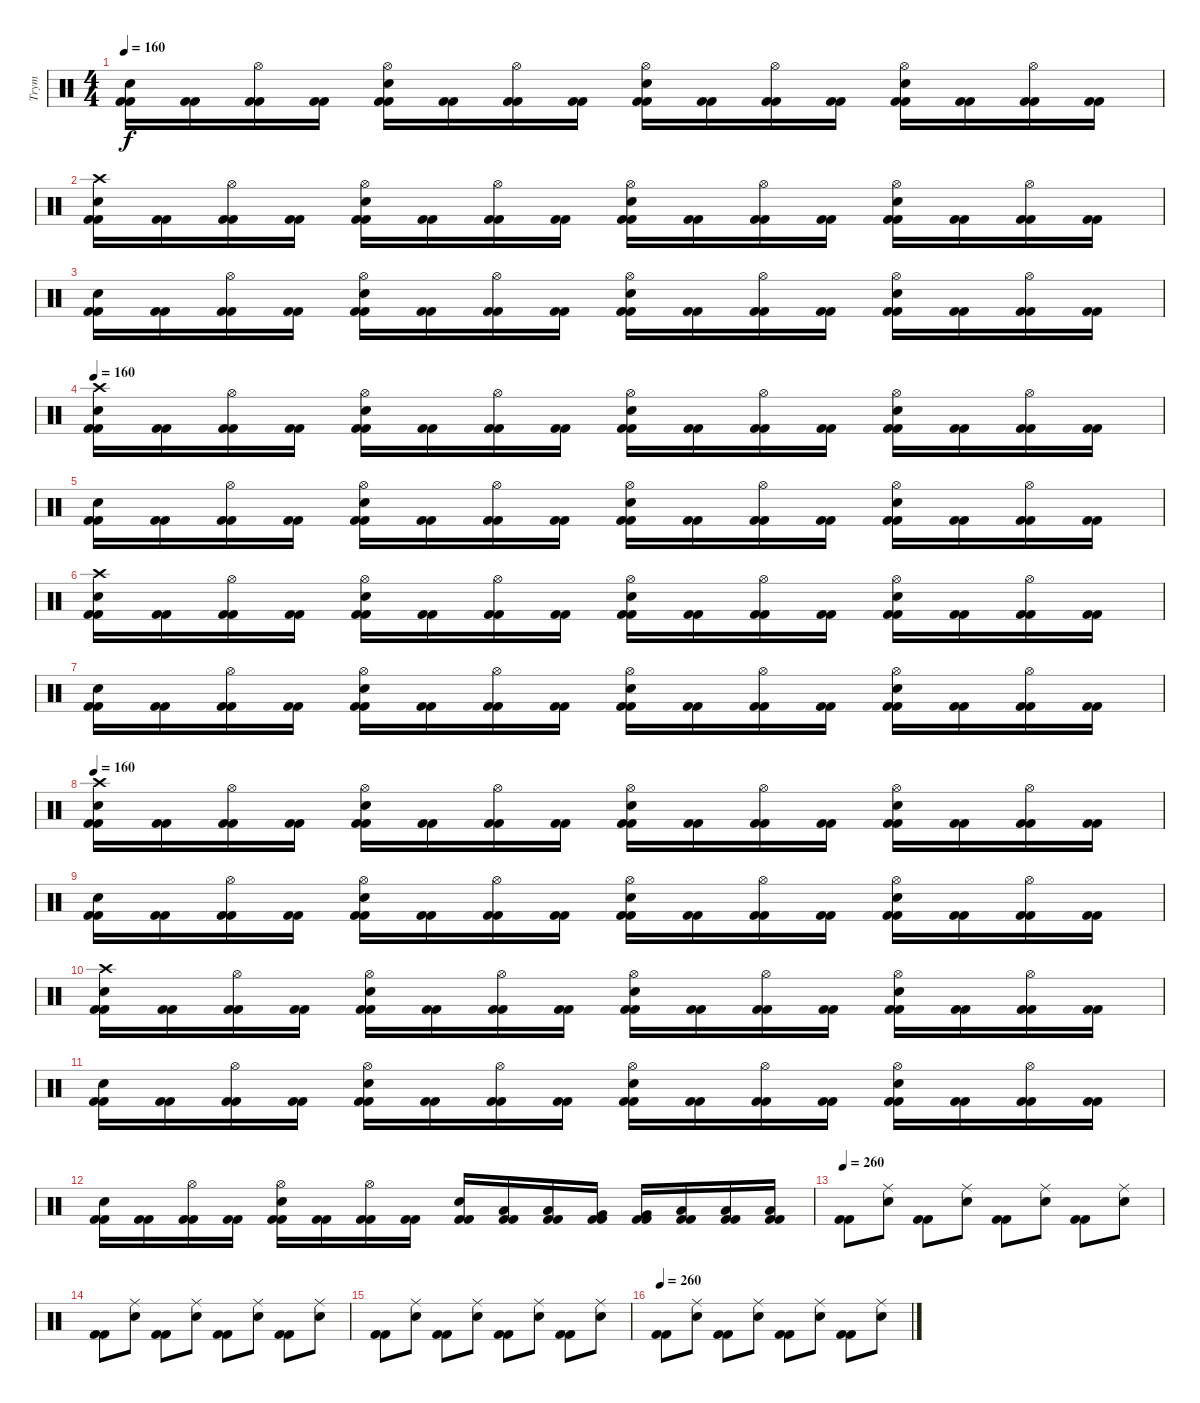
\track ("Trym" "Trym") {instrument percussion}
\staff {score}
\articulation defaults
\ts (4 4)
\tempo 160
\clef neutral
\ks c
("Kick (hit) 2" "Snare (hit) 2" "Kick (hit) 2").16{dy f} ("Kick (hit) 2" "Kick (hit) 2").16 ("Kick (hit) 2" "Hi-Hat (open)" "Kick (hit) 2").16 ("Kick (hit) 2" "Kick (hit) 2").16 ("Kick (hit) 2" "Hi-Hat (open)" "Snare (hit) 2" "Kick (hit) 2").16 ("Kick (hit) 2" "Kick (hit) 2").16 ("Kick (hit) 2" "Hi-Hat (open)" "Kick (hit) 2").16 ("Kick (hit) 2" "Kick (hit) 2").16 ("Kick (hit) 2" "Hi-Hat (open)" "Snare (hit) 2" "Kick (hit) 2").16 ("Kick (hit) 2" "Kick (hit) 2").16 ("Kick (hit) 2" "Hi-Hat (open)" "Kick (hit) 2").16 ("Kick (hit) 2" "Kick (hit) 2").16 ("Kick (hit) 2" "Hi-Hat (open)" "Snare (hit) 2" "Kick (hit) 2").16 ("Kick (hit) 2" "Kick (hit) 2").16 ("Kick (hit) 2" "Hi-Hat (open)" "Kick (hit) 2").16 ("Kick (hit) 2" "Kick (hit) 2").16 |
("Kick (hit) 2" "Crash high (hit)" "Snare (hit) 2" "Kick (hit) 2").16 ("Kick (hit) 2" "Kick (hit) 2").16 ("Kick (hit) 2" "Hi-Hat (open)" "Kick (hit) 2").16 ("Kick (hit) 2" "Kick (hit) 2").16 ("Kick (hit) 2" "Hi-Hat (open)" "Snare (hit) 2" "Kick (hit) 2").16 ("Kick (hit) 2" "Kick (hit) 2").16 ("Kick (hit) 2" "Hi-Hat (open)" "Kick (hit) 2").16 ("Kick (hit) 2" "Kick (hit) 2").16 ("Kick (hit) 2" "Hi-Hat (open)" "Snare (hit) 2" "Kick (hit) 2").16 ("Kick (hit) 2" "Kick (hit) 2").16 ("Kick (hit) 2" "Hi-Hat (open)" "Kick (hit) 2").16 ("Kick (hit) 2" "Kick (hit) 2").16 ("Kick (hit) 2" "Hi-Hat (open)" "Snare (hit) 2" "Kick (hit) 2").16 ("Kick (hit) 2" "Kick (hit) 2").16 ("Kick (hit) 2" "Hi-Hat (open)" "Kick (hit) 2").16 ("Kick (hit) 2" "Kick (hit) 2").16 |
("Kick (hit) 2" "Snare (hit) 2" "Kick (hit) 2").16 ("Kick (hit) 2" "Kick (hit) 2").16 ("Kick (hit) 2" "Hi-Hat (open)" "Kick (hit) 2").16 ("Kick (hit) 2" "Kick (hit) 2").16 ("Kick (hit) 2" "Hi-Hat (open)" "Snare (hit) 2" "Kick (hit) 2").16 ("Kick (hit) 2" "Kick (hit) 2").16 ("Kick (hit) 2" "Hi-Hat (open)" "Kick (hit) 2").16 ("Kick (hit) 2" "Kick (hit) 2").16 ("Kick (hit) 2" "Hi-Hat (open)" "Snare (hit) 2" "Kick (hit) 2").16 ("Kick (hit) 2" "Kick (hit) 2").16 ("Kick (hit) 2" "Hi-Hat (open)" "Kick (hit) 2").16 ("Kick (hit) 2" "Kick (hit) 2").16 ("Kick (hit) 2" "Hi-Hat (open)" "Snare (hit) 2" "Kick (hit) 2").16 ("Kick (hit) 2" "Kick (hit) 2").16 ("Kick (hit) 2" "Hi-Hat (open)" "Kick (hit) 2").16 ("Kick (hit) 2" "Kick (hit) 2").16 |
\tempo 160
("Kick (hit) 2" "Crash high (hit)" "Snare (hit) 2" "Kick (hit) 2").16 ("Kick (hit) 2" "Kick (hit) 2").16 ("Kick (hit) 2" "Hi-Hat (open)" "Kick (hit) 2").16 ("Kick (hit) 2" "Kick (hit) 2").16 ("Kick (hit) 2" "Hi-Hat (open)" "Snare (hit) 2" "Kick (hit) 2").16 ("Kick (hit) 2" "Kick (hit) 2").16 ("Kick (hit) 2" "Hi-Hat (open)" "Kick (hit) 2").16 ("Kick (hit) 2" "Kick (hit) 2").16 ("Kick (hit) 2" "Hi-Hat (open)" "Snare (hit) 2" "Kick (hit) 2").16 ("Kick (hit) 2" "Kick (hit) 2").16 ("Kick (hit) 2" "Hi-Hat (open)" "Kick (hit) 2").16 ("Kick (hit) 2" "Kick (hit) 2").16 ("Kick (hit) 2" "Hi-Hat (open)" "Snare (hit) 2" "Kick (hit) 2").16 ("Kick (hit) 2" "Kick (hit) 2").16 ("Kick (hit) 2" "Hi-Hat (open)" "Kick (hit) 2").16 ("Kick (hit) 2" "Kick (hit) 2").16 |
("Kick (hit) 2" "Snare (hit) 2" "Kick (hit) 2").16 ("Kick (hit) 2" "Kick (hit) 2").16 ("Kick (hit) 2" "Hi-Hat (open)" "Kick (hit) 2").16 ("Kick (hit) 2" "Kick (hit) 2").16 ("Kick (hit) 2" "Hi-Hat (open)" "Snare (hit) 2" "Kick (hit) 2").16 ("Kick (hit) 2" "Kick (hit) 2").16 ("Kick (hit) 2" "Hi-Hat (open)" "Kick (hit) 2").16 ("Kick (hit) 2" "Kick (hit) 2").16 ("Kick (hit) 2" "Hi-Hat (open)" "Snare (hit) 2" "Kick (hit) 2").16 ("Kick (hit) 2" "Kick (hit) 2").16 ("Kick (hit) 2" "Hi-Hat (open)" "Kick (hit) 2").16 ("Kick (hit) 2" "Kick (hit) 2").16 ("Kick (hit) 2" "Hi-Hat (open)" "Snare (hit) 2" "Kick (hit) 2").16 ("Kick (hit) 2" "Kick (hit) 2").16 ("Kick (hit) 2" "Hi-Hat (open)" "Kick (hit) 2").16 ("Kick (hit) 2" "Kick (hit) 2").16 |
("Kick (hit) 2" "Crash high (hit)" "Snare (hit) 2" "Kick (hit) 2").16 ("Kick (hit) 2" "Kick (hit) 2").16 ("Kick (hit) 2" "Hi-Hat (open)" "Kick (hit) 2").16 ("Kick (hit) 2" "Kick (hit) 2").16 ("Kick (hit) 2" "Hi-Hat (open)" "Snare (hit) 2" "Kick (hit) 2").16 ("Kick (hit) 2" "Kick (hit) 2").16 ("Kick (hit) 2" "Hi-Hat (open)" "Kick (hit) 2").16 ("Kick (hit) 2" "Kick (hit) 2").16 ("Kick (hit) 2" "Hi-Hat (open)" "Snare (hit) 2" "Kick (hit) 2").16 ("Kick (hit) 2" "Kick (hit) 2").16 ("Kick (hit) 2" "Hi-Hat (open)" "Kick (hit) 2").16 ("Kick (hit) 2" "Kick (hit) 2").16 ("Kick (hit) 2" "Hi-Hat (open)" "Snare (hit) 2" "Kick (hit) 2").16 ("Kick (hit) 2" "Kick (hit) 2").16 ("Kick (hit) 2" "Hi-Hat (open)" "Kick (hit) 2").16 ("Kick (hit) 2" "Kick (hit) 2").16 |
("Kick (hit) 2" "Snare (hit) 2" "Kick (hit) 2").16 ("Kick (hit) 2" "Kick (hit) 2").16 ("Kick (hit) 2" "Hi-Hat (open)" "Kick (hit) 2").16 ("Kick (hit) 2" "Kick (hit) 2").16 ("Kick (hit) 2" "Hi-Hat (open)" "Snare (hit) 2" "Kick (hit) 2").16 ("Kick (hit) 2" "Kick (hit) 2").16 ("Kick (hit) 2" "Hi-Hat (open)" "Kick (hit) 2").16 ("Kick (hit) 2" "Kick (hit) 2").16 ("Kick (hit) 2" "Hi-Hat (open)" "Snare (hit) 2" "Kick (hit) 2").16 ("Kick (hit) 2" "Kick (hit) 2").16 ("Kick (hit) 2" "Hi-Hat (open)" "Kick (hit) 2").16 ("Kick (hit) 2" "Kick (hit) 2").16 ("Kick (hit) 2" "Hi-Hat (open)" "Snare (hit) 2" "Kick (hit) 2").16 ("Kick (hit) 2" "Kick (hit) 2").16 ("Kick (hit) 2" "Hi-Hat (open)" "Kick (hit) 2").16 ("Kick (hit) 2" "Kick (hit) 2").16 |
\tempo 160
("Kick (hit) 2" "Crash high (hit)" "Snare (hit) 2" "Kick (hit) 2").16 ("Kick (hit) 2" "Kick (hit) 2").16 ("Kick (hit) 2" "Hi-Hat (open)" "Kick (hit) 2").16 ("Kick (hit) 2" "Kick (hit) 2").16 ("Kick (hit) 2" "Hi-Hat (open)" "Snare (hit) 2" "Kick (hit) 2").16 ("Kick (hit) 2" "Kick (hit) 2").16 ("Kick (hit) 2" "Hi-Hat (open)" "Kick (hit) 2").16 ("Kick (hit) 2" "Kick (hit) 2").16 ("Kick (hit) 2" "Hi-Hat (open)" "Snare (hit) 2" "Kick (hit) 2").16 ("Kick (hit) 2" "Kick (hit) 2").16 ("Kick (hit) 2" "Hi-Hat (open)" "Kick (hit) 2").16 ("Kick (hit) 2" "Kick (hit) 2").16 ("Kick (hit) 2" "Hi-Hat (open)" "Snare (hit) 2" "Kick (hit) 2").16 ("Kick (hit) 2" "Kick (hit) 2").16 ("Kick (hit) 2" "Hi-Hat (open)" "Kick (hit) 2").16 ("Kick (hit) 2" "Kick (hit) 2").16 |
("Kick (hit) 2" "Snare (hit) 2" "Kick (hit) 2").16 ("Kick (hit) 2" "Kick (hit) 2").16 ("Kick (hit) 2" "Hi-Hat (open)" "Kick (hit) 2").16 ("Kick (hit) 2" "Kick (hit) 2").16 ("Kick (hit) 2" "Hi-Hat (open)" "Snare (hit) 2" "Kick (hit) 2").16 ("Kick (hit) 2" "Kick (hit) 2").16 ("Kick (hit) 2" "Hi-Hat (open)" "Kick (hit) 2").16 ("Kick (hit) 2" "Kick (hit) 2").16 ("Kick (hit) 2" "Hi-Hat (open)" "Snare (hit) 2" "Kick (hit) 2").16 ("Kick (hit) 2" "Kick (hit) 2").16 ("Kick (hit) 2" "Hi-Hat (open)" "Kick (hit) 2").16 ("Kick (hit) 2" "Kick (hit) 2").16 ("Kick (hit) 2" "Hi-Hat (open)" "Snare (hit) 2" "Kick (hit) 2").16 ("Kick (hit) 2" "Kick (hit) 2").16 ("Kick (hit) 2" "Hi-Hat (open)" "Kick (hit) 2").16 ("Kick (hit) 2" "Kick (hit) 2").16 |
("Kick (hit) 2" "Crash high (hit)" "Snare (hit) 2" "Kick (hit) 2").16 ("Kick (hit) 2" "Kick (hit) 2").16 ("Kick (hit) 2" "Hi-Hat (open)" "Kick (hit) 2").16 ("Kick (hit) 2" "Kick (hit) 2").16 ("Kick (hit) 2" "Hi-Hat (open)" "Snare (hit) 2" "Kick (hit) 2").16 ("Kick (hit) 2" "Kick (hit) 2").16 ("Kick (hit) 2" "Hi-Hat (open)" "Kick (hit) 2").16 ("Kick (hit) 2" "Kick (hit) 2").16 ("Kick (hit) 2" "Hi-Hat (open)" "Snare (hit) 2" "Kick (hit) 2").16 ("Kick (hit) 2" "Kick (hit) 2").16 ("Kick (hit) 2" "Hi-Hat (open)" "Kick (hit) 2").16 ("Kick (hit) 2" "Kick (hit) 2").16 ("Kick (hit) 2" "Hi-Hat (open)" "Snare (hit) 2" "Kick (hit) 2").16 ("Kick (hit) 2" "Kick (hit) 2").16 ("Kick (hit) 2" "Hi-Hat (open)" "Kick (hit) 2").16 ("Kick (hit) 2" "Kick (hit) 2").16 |
("Kick (hit) 2" "Snare (hit) 2" "Kick (hit) 2").16 ("Kick (hit) 2" "Kick (hit) 2").16 ("Kick (hit) 2" "Hi-Hat (open)" "Kick (hit) 2").16 ("Kick (hit) 2" "Kick (hit) 2").16 ("Kick (hit) 2" "Hi-Hat (open)" "Snare (hit) 2" "Kick (hit) 2").16 ("Kick (hit) 2" "Kick (hit) 2").16 ("Kick (hit) 2" "Hi-Hat (open)" "Kick (hit) 2").16 ("Kick (hit) 2" "Kick (hit) 2").16 ("Kick (hit) 2" "Hi-Hat (open)" "Snare (hit) 2" "Kick (hit) 2").16 ("Kick (hit) 2" "Kick (hit) 2").16 ("Kick (hit) 2" "Hi-Hat (open)" "Kick (hit) 2").16 ("Kick (hit) 2" "Kick (hit) 2").16 ("Kick (hit) 2" "Hi-Hat (open)" "Snare (hit) 2" "Kick (hit) 2").16 ("Kick (hit) 2" "Kick (hit) 2").16 ("Kick (hit) 2" "Hi-Hat (open)" "Kick (hit) 2").16 ("Kick (hit) 2" "Kick (hit) 2").16 |
("Kick (hit) 2" "Snare (hit) 2" "Kick (hit) 2").16 ("Kick (hit) 2" "Kick (hit) 2").16 ("Kick (hit) 2" "Hi-Hat (open)" "Kick (hit) 2").16 ("Kick (hit) 2" "Kick (hit) 2").16 ("Kick (hit) 2" "Hi-Hat (open)" "Snare (hit) 2" "Kick (hit) 2").16 ("Kick (hit) 2" "Kick (hit) 2").16 ("Kick (hit) 2" "Hi-Hat (open)" "Kick (hit) 2").16 ("Kick (hit) 2" "Kick (hit) 2").16 ("Kick (hit) 2" "Snare (hit) 2" "Kick (hit) 2").16 ("Kick (hit) 2" "Low Tom (hit)" "Kick (hit) 2").16 ("Kick (hit) 2" "Low Tom (hit)" "Kick (hit) 2").16 ("Kick (hit) 2" "Very Low Tom (hit)" "Kick (hit) 2").16 ("Kick (hit) 2" "Very Low Tom (hit)" "Kick (hit) 2").16 ("Kick (hit) 2" "Low Floor Tom (hit)" "Kick (hit) 2").16 ("Kick (hit) 2" "Low Floor Tom (hit)" "Kick (hit) 2").16 ("Kick (hit) 2" "Low Floor Tom (hit)" "Kick (hit) 2").16 |
\tempo 260
("Kick (hit) 2" "Kick (hit) 2").8 ("Ride (middle)" "Snare (hit) 2").8 ("Kick (hit) 2" "Kick (hit) 2").8 ("Ride (middle)" "Snare (hit) 2").8 ("Kick (hit) 2" "Kick (hit) 2").8 ("Ride (middle)" "Snare (hit) 2").8 ("Kick (hit) 2" "Kick (hit) 2").8 ("Ride (middle)" "Snare (hit) 2").8 |
("Kick (hit) 2" "Kick (hit) 2").8 ("Ride (middle)" "Snare (hit) 2").8 ("Kick (hit) 2" "Kick (hit) 2").8 ("Ride (middle)" "Snare (hit) 2").8 ("Kick (hit) 2" "Kick (hit) 2").8 ("Ride (middle)" "Snare (hit) 2").8 ("Kick (hit) 2" "Kick (hit) 2").8 ("Ride (middle)" "Snare (hit) 2").8 |
("Kick (hit) 2" "Kick (hit) 2").8 ("Ride (middle)" "Snare (hit) 2").8 ("Kick (hit) 2" "Kick (hit) 2").8 ("Ride (middle)" "Snare (hit) 2").8 ("Kick (hit) 2" "Kick (hit) 2").8 ("Ride (middle)" "Snare (hit) 2").8 ("Kick (hit) 2" "Kick (hit) 2").8 ("Ride (middle)" "Snare (hit) 2").8 |
\tempo 260
("Kick (hit) 2" "Kick (hit) 2").8 ("Ride (middle)" "Snare (hit) 2").8 ("Kick (hit) 2" "Kick (hit) 2").8 ("Ride (middle)" "Snare (hit) 2").8 ("Kick (hit) 2" "Kick (hit) 2").8 ("Ride (middle)" "Snare (hit) 2").8 ("Kick (hit) 2" "Kick (hit) 2").8 ("Ride (middle)" "Snare (hit) 2").8
